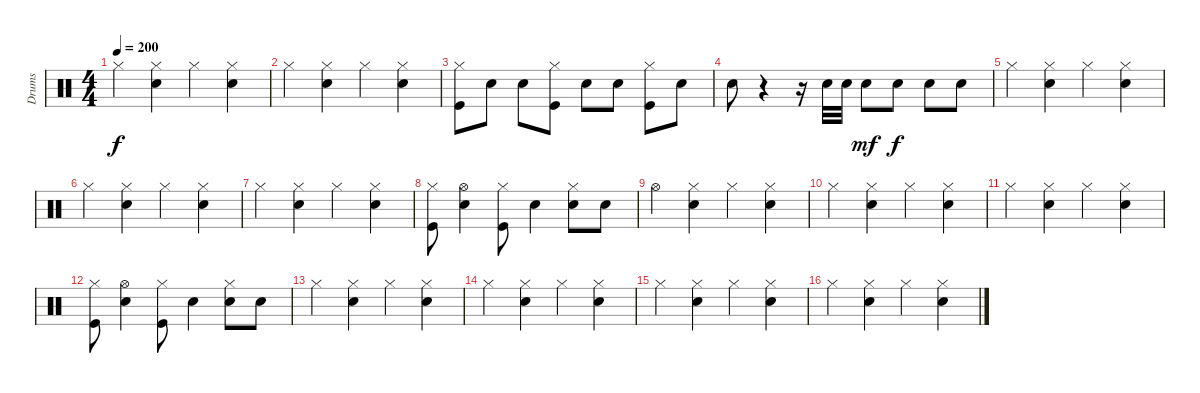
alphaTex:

\track ("Drums" "Drums") {instrument percussion}
\staff {score}
\articulation defaults
\ts (4 4)
\tempo 200
\clef neutral
\ks c "Hi-Hat (closed)".4{dy f}
("Snare (hit) 2" "Hi-Hat (closed)").4 "Hi-Hat (closed)".4 ("Snare (hit) 2" "Hi-Hat (closed)").4 |
"Hi-Hat (closed)".4 ("Snare (hit) 2" "Hi-Hat (closed)").4 "Hi-Hat (closed)".4 ("Snare (hit) 2" "Hi-Hat (closed)").4 |
("Hi-Hat (closed)" "Kick (hit)").8 "Electric Snare (hit)".8 "Electric Snare (hit)".8 ("Hi-Hat (closed)" "Kick (hit)").8 "Electric Snare (hit)".8 "Electric Snare (hit)".8 ("Hi-Hat (closed)" "Kick (hit)").8 "Electric Snare (hit)".8 |
"Electric Snare (hit)".8 r.4 r.16 "Electric Snare (hit)".32 "Electric Snare (hit)".32 "Electric Snare (hit)".8{dy mf} "Electric Snare (hit)".8{dy f} "Electric Snare (hit)".8 "Electric Snare (hit)".8 |
"Hi-Hat (closed)".4 ("Snare (hit) 2" "Hi-Hat (closed)").4 "Hi-Hat (closed)".4 ("Snare (hit) 2" "Hi-Hat (closed)").4 |
"Hi-Hat (closed)".4 ("Snare (hit) 2" "Hi-Hat (closed)").4 "Hi-Hat (closed)".4 ("Snare (hit) 2" "Hi-Hat (closed)").4 |
"Hi-Hat (closed)".4 ("Snare (hit) 2" "Hi-Hat (closed)").4 "Hi-Hat (closed)".4 ("Snare (hit) 2" "Hi-Hat (closed)").4 |
("Kick (hit)" "Hi-Hat (closed)").8 ("Hi-Hat (open)" "Electric Snare (hit)").4 ("Kick (hit)" "Hi-Hat (closed)").8 "Electric Snare (hit)".4 ("Electric Snare (hit)" "Hi-Hat (closed)").8 "Electric Snare (hit)".8 |
"Hi-Hat (open)".4 ("Snare (hit) 2" "Hi-Hat (closed)").4 "Hi-Hat (closed)".4 ("Snare (hit) 2" "Hi-Hat (closed)").4 |
"Hi-Hat (closed)".4 ("Snare (hit) 2" "Hi-Hat (closed)").4 "Hi-Hat (closed)".4 ("Snare (hit) 2" "Hi-Hat (closed)").4 |
"Hi-Hat (closed)".4 ("Snare (hit) 2" "Hi-Hat (closed)").4 "Hi-Hat (closed)".4 ("Snare (hit) 2" "Hi-Hat (closed)").4 |
("Kick (hit)" "Hi-Hat (closed)").8 ("Hi-Hat (open)" "Electric Snare (hit)").4 ("Kick (hit)" "Hi-Hat (closed)").8 "Electric Snare (hit)".4 ("Electric Snare (hit)" "Hi-Hat (closed)").8 "Electric Snare (hit)".8 |
"Hi-Hat (closed)".4 ("Snare (hit) 2" "Hi-Hat (closed)").4 "Hi-Hat (closed)".4 ("Snare (hit) 2" "Hi-Hat (closed)").4 |
"Hi-Hat (closed)".4 ("Snare (hit) 2" "Hi-Hat (closed)").4 "Hi-Hat (closed)".4 ("Snare (hit) 2" "Hi-Hat (closed)").4 |
"Hi-Hat (closed)".4 ("Snare (hit) 2" "Hi-Hat (closed)").4 "Hi-Hat (closed)".4 ("Snare (hit) 2" "Hi-Hat (closed)").4 |
"Hi-Hat (closed)".4 ("Snare (hit) 2" "Hi-Hat (closed)").4 "Hi-Hat (closed)".4 ("Snare (hit) 2" "Hi-Hat (closed)").4
